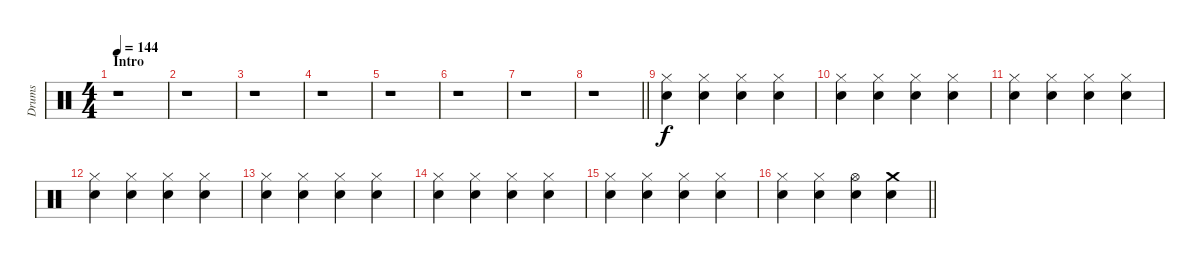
\track ("Drums" "Drums") {instrument percussion}
\staff {score}
\articulation defaults
\ts (4 4)
\section ("" "Intro")
\tempo 144
\clef neutral
\ks c
r.1{dy f} |
r.1 |
r.1 |
r.1 |
r.1 |
r.1 |
r.1 |
\barLineRight lightlight
r.1 |
\section ("" "")
("Hi-Hat (closed)" "Electric Snare (hit)").4 ("Hi-Hat (closed)" "Electric Snare (hit)").4 ("Hi-Hat (closed)" "Electric Snare (hit)").4 ("Hi-Hat (closed)" "Electric Snare (hit)").4 |
("Hi-Hat (closed)" "Electric Snare (hit)").4 ("Hi-Hat (closed)" "Electric Snare (hit)").4 ("Hi-Hat (closed)" "Electric Snare (hit)").4 ("Hi-Hat (closed)" "Electric Snare (hit)").4 |
("Hi-Hat (closed)" "Electric Snare (hit)").4 ("Hi-Hat (closed)" "Electric Snare (hit)").4 ("Hi-Hat (closed)" "Electric Snare (hit)").4 ("Hi-Hat (closed)" "Electric Snare (hit)").4 |
("Hi-Hat (closed)" "Electric Snare (hit)").4 ("Hi-Hat (closed)" "Electric Snare (hit)").4 ("Hi-Hat (closed)" "Electric Snare (hit)").4 ("Hi-Hat (closed)" "Electric Snare (hit)").4 |
("Hi-Hat (closed)" "Electric Snare (hit)").4 ("Hi-Hat (closed)" "Electric Snare (hit)").4 ("Hi-Hat (closed)" "Electric Snare (hit)").4 ("Hi-Hat (closed)" "Electric Snare (hit)").4 |
("Hi-Hat (closed)" "Electric Snare (hit)").4 ("Hi-Hat (closed)" "Electric Snare (hit)").4 ("Hi-Hat (closed)" "Electric Snare (hit)").4 ("Hi-Hat (closed)" "Electric Snare (hit)").4 |
("Hi-Hat (closed)" "Electric Snare (hit)").4 ("Hi-Hat (closed)" "Electric Snare (hit)").4 ("Hi-Hat (closed)" "Electric Snare (hit)").4 ("Hi-Hat (closed)" "Electric Snare (hit)").4 |
\barLineRight lightlight
("Hi-Hat (closed)" "Electric Snare (hit)").4 ("Hi-Hat (closed)" "Electric Snare (hit)").4 ("Hi-Hat (open)" "Electric Snare (hit)").4 ("Crash medium (hit)" "Electric Snare (hit)").4
